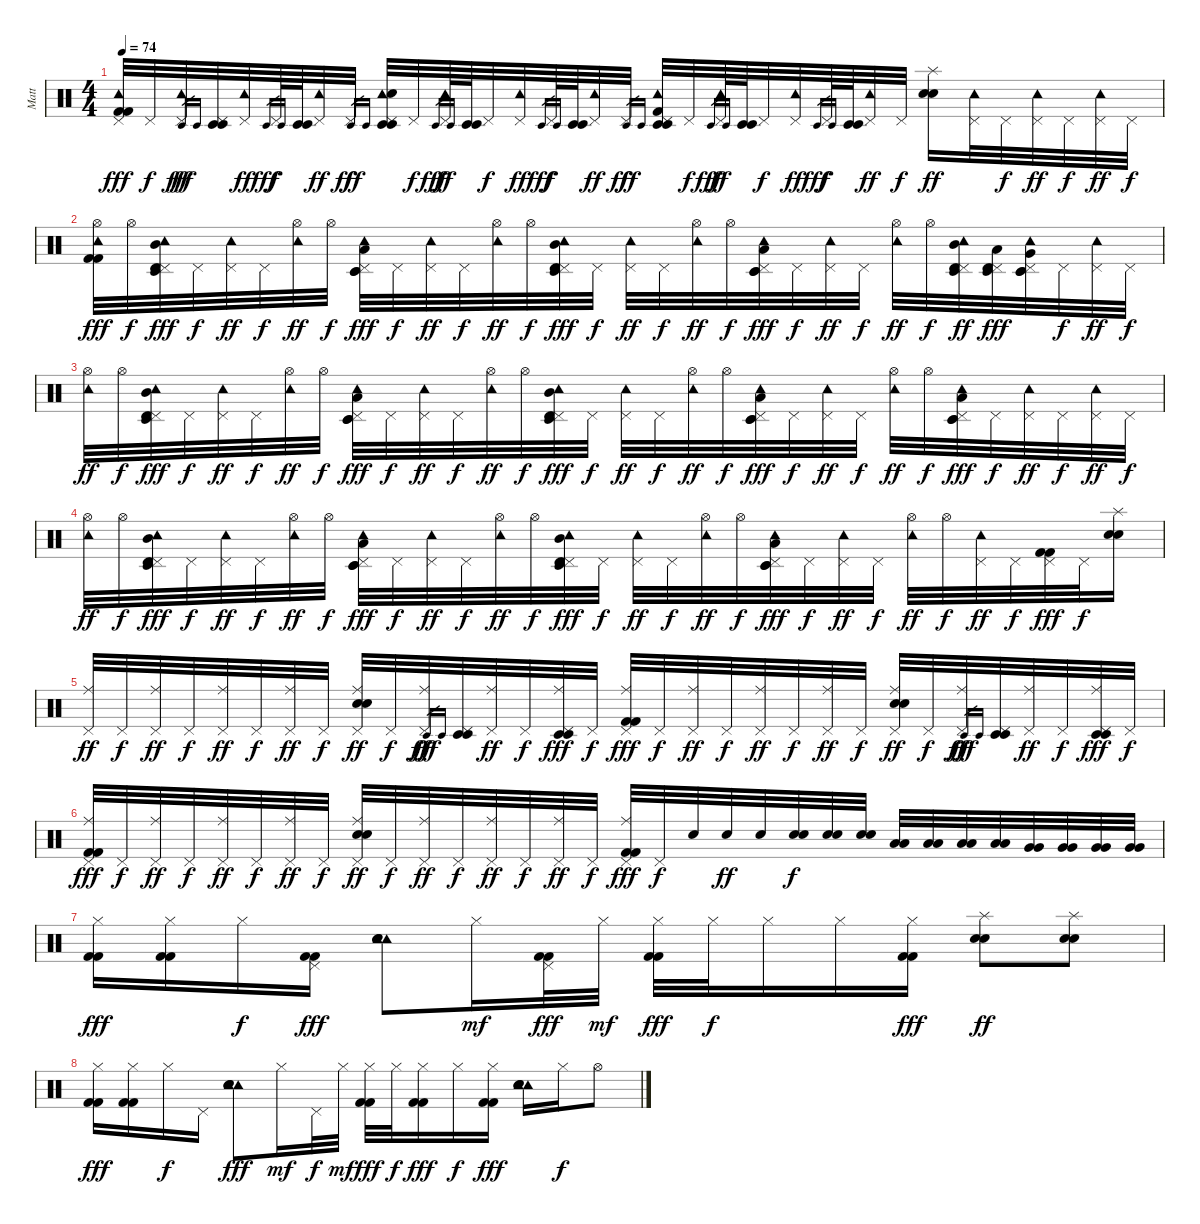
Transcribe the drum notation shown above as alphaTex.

\track ("Matt" "Matt") {instrument percussion}
\staff {score}
\articulation defaults
\ts (4 4)
\tempo 74
\clef neutral
\ks c
("Tambourine (hit)" "Pedal Hi-Hat (hit)" "Kick (hit) 2" "Kick (hit) 2").32{dy fff} "Pedal Hi-Hat (hit)".32{dy f} ("Tambourine (hit)" "Pedal Hi-Hat (hit)").32{dy ff} "Timbale low (hit)".16{gr dy fff} "Timbale low (hit)".16{gr} ("Pedal Hi-Hat (hit)" "Timbale low (hit)" "Timbale low (hit)").32 ("Tambourine (hit)" "Pedal Hi-Hat (hit)").32{dy ff} "Pedal Hi-Hat (hit)".64{dy f} "Timbale low (hit)".16{gr dy fff} "Timbale low (hit)".16{gr} ("Timbale low (hit)" "Timbale low (hit)").64 ("Tambourine (hit)" "Pedal Hi-Hat (hit)").32{dy ff} "Pedal Hi-Hat (hit)".32{dy f} "Timbale low (hit)".16{gr dy fff} "Timbale low (hit)".16{gr} ("Tambourine (hit)" "Pedal Hi-Hat (hit)" "Timbale low (hit)" "Timbale low (hit)" "Electric Snare (hit)").32 "Pedal Hi-Hat (hit)".32{dy f} ("Tambourine (hit)" "Pedal Hi-Hat (hit)").64{dy ff} "Timbale low (hit)".16{gr dy fff} "Timbale low (hit)".16{gr} ("Timbale low (hit)" "Timbale low (hit)").64 "Pedal Hi-Hat (hit)".32{dy f} ("Tambourine (hit)" "Pedal Hi-Hat (hit)").32{dy ff} "Pedal Hi-Hat (hit)".64{dy f} "Timbale low (hit)".16{gr dy fff} "Timbale low (hit)".16{gr} ("Timbale low (hit)" "Timbale low (hit)").64 ("Tambourine (hit)" "Pedal Hi-Hat (hit)").32{dy ff} "Pedal Hi-Hat (hit)".32{dy f} "Timbale low (hit)".16{gr dy fff} "Timbale low (hit)".16{gr} ("Tambourine (hit)" "Pedal Hi-Hat (hit)" "Timbale low (hit)" "Timbale low (hit)" "Kick (hit) 2").32 "Pedal Hi-Hat (hit)".32{dy f} ("Tambourine (hit)" "Pedal Hi-Hat (hit)").64{dy ff} "Timbale low (hit)".16{gr dy fff} "Timbale low (hit)".16{gr} ("Timbale low (hit)" "Timbale low (hit)").64 "Pedal Hi-Hat (hit)".32{dy f} ("Tambourine (hit)" "Pedal Hi-Hat (hit)").32{dy ff} "Pedal Hi-Hat (hit)".64{dy f} "Timbale low (hit)".16{gr dy fff} "Timbale low (hit)".16{gr} ("Timbale low (hit)" "Timbale low (hit)").64 ("Tambourine (hit)" "Pedal Hi-Hat (hit)").32{dy ff} "Pedal Hi-Hat (hit)".32{dy f} ("Splash (hit)" "Electric Snare (hit)" "Electric Snare (hit)").16{dy ff} ("Tambourine (hit)" "Pedal Hi-Hat (hit)").32 "Pedal Hi-Hat (hit)".32{dy f} ("Tambourine (hit)" "Pedal Hi-Hat (hit)").32{dy ff} "Pedal Hi-Hat (hit)".32{dy f} ("Tambourine (hit)" "Pedal Hi-Hat (hit)").32{dy ff} "Pedal Hi-Hat (hit)".32{dy f} |
("Tambourine (hit)" "Hi-Hat (open)" "Kick (hit) 2" "Kick (hit) 2").32{dy fff} "Hi-Hat (open)".32{dy f} ("Tambourine (hit)" "Pedal Hi-Hat (hit)" "Mid Tom (hit)" "Timbale high (hit)" "Timbale low (hit)").32{dy fff} "Pedal Hi-Hat (hit)".32{dy f} ("Tambourine (hit)" "Pedal Hi-Hat (hit)").32{dy ff} "Pedal Hi-Hat (hit)".32{dy f} ("Tambourine (hit)" "Hi-Hat (open)").32{dy ff} "Hi-Hat (open)".32{dy f} ("Tambourine (hit)" "Pedal Hi-Hat (hit)" "Low Tom (hit)" "Timbale low (hit)" "Timbale low (hit)").32{dy fff} "Pedal Hi-Hat (hit)".32{dy f} ("Tambourine (hit)" "Pedal Hi-Hat (hit)").32{dy ff} "Pedal Hi-Hat (hit)".32{dy f} ("Tambourine (hit)" "Hi-Hat (open)").32{dy ff} "Hi-Hat (open)".32{dy f} ("Tambourine (hit)" "Pedal Hi-Hat (hit)" "Mid Tom (hit)" "Timbale high (hit)" "Timbale low (hit)").32{dy fff} "Pedal Hi-Hat (hit)".32{dy f} ("Tambourine (hit)" "Pedal Hi-Hat (hit)").32{dy ff} "Pedal Hi-Hat (hit)".32{dy f} ("Tambourine (hit)" "Hi-Hat (open)").32{dy ff} "Hi-Hat (open)".32{dy f} ("Tambourine (hit)" "Pedal Hi-Hat (hit)" "Low Tom (hit)" "Timbale low (hit)" "Timbale low (hit)").32{dy fff} "Pedal Hi-Hat (hit)".32{dy f} ("Tambourine (hit)" "Pedal Hi-Hat (hit)").32{dy ff} "Pedal Hi-Hat (hit)".32{dy f} ("Tambourine (hit)" "Hi-Hat (open)").32{dy ff} "Hi-Hat (open)".32{dy f} ("Tambourine (hit)" "Pedal Hi-Hat (hit)" "Mid Tom (hit)" "Timbale high (hit)" "Timbale low (hit)").32{dy ff} ("Pedal Hi-Hat (hit)" "Low Tom (hit)" "Timbale high (hit)" "Timbale low (hit)").32{dy fff} ("Tambourine (hit)" "Pedal Hi-Hat (hit)" "Very Low Tom (hit)" "Timbale low (hit)" "Timbale low (hit)").32 "Pedal Hi-Hat (hit)".32{dy f} ("Tambourine (hit)" "Pedal Hi-Hat (hit)").32{dy ff} "Pedal Hi-Hat (hit)".32{dy f} |
("Tambourine (hit)" "Hi-Hat (open)").32{dy ff} "Hi-Hat (open)".32{dy f} ("Tambourine (hit)" "Pedal Hi-Hat (hit)" "Mid Tom (hit)" "Timbale high (hit)" "Timbale low (hit)").32{dy fff} "Pedal Hi-Hat (hit)".32{dy f} ("Tambourine (hit)" "Pedal Hi-Hat (hit)").32{dy ff} "Pedal Hi-Hat (hit)".32{dy f} ("Tambourine (hit)" "Hi-Hat (open)").32{dy ff} "Hi-Hat (open)".32{dy f} ("Tambourine (hit)" "Pedal Hi-Hat (hit)" "Low Tom (hit)" "Timbale low (hit)" "Timbale low (hit)").32{dy fff} "Pedal Hi-Hat (hit)".32{dy f} ("Tambourine (hit)" "Pedal Hi-Hat (hit)").32{dy ff} "Pedal Hi-Hat (hit)".32{dy f} ("Tambourine (hit)" "Hi-Hat (open)").32{dy ff} "Hi-Hat (open)".32{dy f} ("Tambourine (hit)" "Pedal Hi-Hat (hit)" "Mid Tom (hit)" "Timbale high (hit)" "Timbale low (hit)").32{dy fff} "Pedal Hi-Hat (hit)".32{dy f} ("Tambourine (hit)" "Pedal Hi-Hat (hit)").32{dy ff} "Pedal Hi-Hat (hit)".32{dy f} ("Tambourine (hit)" "Hi-Hat (open)").32{dy ff} "Hi-Hat (open)".32{dy f} ("Tambourine (hit)" "Pedal Hi-Hat (hit)" "Low Tom (hit)" "Timbale low (hit)" "Timbale low (hit)").32{dy fff} "Pedal Hi-Hat (hit)".32{dy f} ("Tambourine (hit)" "Pedal Hi-Hat (hit)").32{dy ff} "Pedal Hi-Hat (hit)".32{dy f} ("Tambourine (hit)" "Hi-Hat (open)").32{dy ff} "Hi-Hat (open)".32{dy f} ("Tambourine (hit)" "Pedal Hi-Hat (hit)" "Low Tom (hit)" "Timbale low (hit)" "Timbale low (hit)").32{dy fff} "Pedal Hi-Hat (hit)".32{dy f} ("Tambourine (hit)" "Pedal Hi-Hat (hit)").32{dy ff} "Pedal Hi-Hat (hit)".32{dy f} ("Tambourine (hit)" "Pedal Hi-Hat (hit)").32{dy ff} "Pedal Hi-Hat (hit)".32{dy f} |
("Tambourine (hit)" "Hi-Hat (open)").32{dy ff} "Hi-Hat (open)".32{dy f} ("Tambourine (hit)" "Pedal Hi-Hat (hit)" "Mid Tom (hit)" "Timbale high (hit)" "Timbale low (hit)").32{dy fff} "Pedal Hi-Hat (hit)".32{dy f} ("Tambourine (hit)" "Pedal Hi-Hat (hit)").32{dy ff} "Pedal Hi-Hat (hit)".32{dy f} ("Tambourine (hit)" "Hi-Hat (open)").32{dy ff} "Hi-Hat (open)".32{dy f} ("Tambourine (hit)" "Pedal Hi-Hat (hit)" "Low Tom (hit)" "Timbale low (hit)" "Timbale low (hit)").32{dy fff} "Pedal Hi-Hat (hit)".32{dy f} ("Tambourine (hit)" "Pedal Hi-Hat (hit)").32{dy ff} "Pedal Hi-Hat (hit)".32{dy f} ("Tambourine (hit)" "Hi-Hat (open)").32{dy ff} "Hi-Hat (open)".32{dy f} ("Tambourine (hit)" "Pedal Hi-Hat (hit)" "Mid Tom (hit)" "Timbale high (hit)" "Timbale low (hit)").32{dy fff} "Pedal Hi-Hat (hit)".32{dy f} ("Tambourine (hit)" "Pedal Hi-Hat (hit)").32{dy ff} "Pedal Hi-Hat (hit)".32{dy f} ("Tambourine (hit)" "Hi-Hat (open)").32{dy ff} "Hi-Hat (open)".32{dy f} ("Tambourine (hit)" "Pedal Hi-Hat (hit)" "Low Tom (hit)" "Timbale low (hit)" "Timbale low (hit)").32{dy fff} "Pedal Hi-Hat (hit)".32{dy f} ("Tambourine (hit)" "Pedal Hi-Hat (hit)").32{dy ff} "Pedal Hi-Hat (hit)".32{dy f} ("Tambourine (hit)" "Hi-Hat (open)").32{dy ff} "Hi-Hat (open)".32{dy f} ("Tambourine (hit)" "Pedal Hi-Hat (hit)").32{dy ff} "Pedal Hi-Hat (hit)".32{dy f} ("Pedal Hi-Hat (hit)" "Kick (hit) 2" "Kick (hit) 2").32{dy fff} "Pedal Hi-Hat (hit)".32{dy f} ("Splash (hit)" "Electric Snare (hit)" "Electric Snare (hit)").16 |
("Ride (middle)" "Pedal Hi-Hat (hit)").32{dy ff} "Pedal Hi-Hat (hit)".32{dy f} ("Ride (middle)" "Pedal Hi-Hat (hit)").32{dy ff} "Pedal Hi-Hat (hit)".32{dy f} ("Ride (middle)" "Pedal Hi-Hat (hit)").32{dy ff} "Pedal Hi-Hat (hit)".32{dy f} ("Ride (middle)" "Pedal Hi-Hat (hit)").32{dy ff} "Pedal Hi-Hat (hit)".32{dy f} ("Ride (middle)" "Pedal Hi-Hat (hit)" "Electric Snare (hit)" "Electric Snare (hit)").32{dy ff} "Pedal Hi-Hat (hit)".32{dy f} ("Ride (middle)" "Pedal Hi-Hat (hit)").32{dy ff} "Timbale low (hit)".16{gr dy fff} "Timbale low (hit)".16{gr} ("Pedal Hi-Hat (hit)" "Timbale low (hit)" "Timbale low (hit)").32 ("Ride (middle)" "Pedal Hi-Hat (hit)").32{dy ff} "Pedal Hi-Hat (hit)".32{dy f} ("Ride (middle)" "Pedal Hi-Hat (hit)" "Timbale low (hit)" "Timbale low (hit)").32{dy fff} "Pedal Hi-Hat (hit)".32{dy f} ("Ride (middle)" "Pedal Hi-Hat (hit)" "Kick (hit) 2" "Kick (hit) 2").32{dy fff} "Pedal Hi-Hat (hit)".32{dy f} ("Ride (middle)" "Pedal Hi-Hat (hit)").32{dy ff} "Pedal Hi-Hat (hit)".32{dy f} ("Ride (middle)" "Pedal Hi-Hat (hit)").32{dy ff} "Pedal Hi-Hat (hit)".32{dy f} ("Ride (middle)" "Pedal Hi-Hat (hit)").32{dy ff} "Pedal Hi-Hat (hit)".32{dy f} ("Ride (middle)" "Pedal Hi-Hat (hit)" "Electric Snare (hit)" "Electric Snare (hit)").32{dy ff} "Pedal Hi-Hat (hit)".32{dy f} ("Ride (middle)" "Pedal Hi-Hat (hit)").32{dy ff} "Timbale low (hit)".16{gr dy fff} "Timbale low (hit)".16{gr} ("Pedal Hi-Hat (hit)" "Timbale low (hit)" "Timbale low (hit)").32 ("Ride (middle)" "Pedal Hi-Hat (hit)").32{dy ff} "Pedal Hi-Hat (hit)".32{dy f} ("Ride (middle)" "Pedal Hi-Hat (hit)" "Timbale low (hit)" "Timbale low (hit)").32{dy fff} "Pedal Hi-Hat (hit)".32{dy f} |
("Ride (middle)" "Pedal Hi-Hat (hit)" "Kick (hit) 2" "Kick (hit) 2").32{dy fff} "Pedal Hi-Hat (hit)".32{dy f} ("Ride (middle)" "Pedal Hi-Hat (hit)").32{dy ff} "Pedal Hi-Hat (hit)".32{dy f} ("Ride (middle)" "Pedal Hi-Hat (hit)").32{dy ff} "Pedal Hi-Hat (hit)".32{dy f} ("Ride (middle)" "Pedal Hi-Hat (hit)").32{dy ff} "Pedal Hi-Hat (hit)".32{dy f} ("Ride (middle)" "Pedal Hi-Hat (hit)" "Electric Snare (hit)" "Electric Snare (hit)").32{dy ff} "Pedal Hi-Hat (hit)".32{dy f} ("Ride (middle)" "Pedal Hi-Hat (hit)").32{dy ff} "Pedal Hi-Hat (hit)".32{dy f} ("Ride (middle)" "Pedal Hi-Hat (hit)").32{dy ff} "Pedal Hi-Hat (hit)".32{dy f} ("Ride (middle)" "Pedal Hi-Hat (hit)").32{dy ff} "Pedal Hi-Hat (hit)".32{dy f} ("Ride (middle)" "Pedal Hi-Hat (hit)" "Kick (hit) 2" "Kick (hit) 2").32{dy fff} "Pedal Hi-Hat (hit)".32{dy f} "Electric Snare (hit)".32 "Electric Snare (hit)".32{dy ff} "Electric Snare (hit)".32 ("Electric Snare (hit)" "Electric Snare (hit)").32{dy f} ("Electric Snare (hit)" "Electric Snare (hit)").32 ("Electric Snare (hit)" "Electric Snare (hit)").32 ("Low Tom (hit)" "Low Tom (hit)").32 ("Low Tom (hit)" "Low Tom (hit)").32 ("Low Tom (hit)" "Low Tom (hit)").32 ("Low Tom (hit)" "Low Tom (hit)").32 ("Very Low Tom (hit)" "Very Low Tom (hit)").32 ("Very Low Tom (hit)" "Very Low Tom (hit)").32 ("Very Low Tom (hit)" "Very Low Tom (hit)").32 ("Very Low Tom (hit)" "Very Low Tom (hit)").32 |
("Hi-Hat (closed)" "Kick (hit) 2" "Kick (hit) 2").16{dy fff} ("Hi-Hat (closed)" "Kick (hit) 2" "Kick (hit) 2").16 "Hi-Hat (closed)".16{dy f} ("Pedal Hi-Hat (hit)" "Kick (hit) 2" "Kick (hit) 2").16{dy fff} ("Tambourine (hit)" "Tambourine (hit)" "Electric Snare (hit)" "Electric Snare (hit)").8 "Hi-Hat (closed)".16{dy mf} ("Pedal Hi-Hat (hit)" "Kick (hit) 2" "Kick (hit) 2").32{dy fff} "Hi-Hat (closed)".32{dy mf} ("Hi-Hat (closed)" "Kick (hit) 2" "Kick (hit) 2").32{dy fff} "Hi-Hat (closed)".32{dy f} "Hi-Hat (closed)".16 "Hi-Hat (closed)".16 ("Hi-Hat (closed)" "Kick (hit) 2" "Kick (hit) 2").16{dy fff} ("Splash (hit)" "Electric Snare (hit)" "Electric Snare (hit)").8{dy ff} ("Splash (hit)" "Electric Snare (hit)" "Electric Snare (hit)").8 |
("Hi-Hat (closed)" "Kick (hit) 2" "Kick (hit) 2").16{dy fff} ("Hi-Hat (closed)" "Kick (hit) 2" "Kick (hit) 2").16 "Hi-Hat (closed)".16{dy f} "Pedal Hi-Hat (hit)".16 ("Tambourine (hit)" "Tambourine (hit)" "Electric Snare (hit)" "Electric Snare (hit)").8{dy fff} "Hi-Hat (closed)".16{dy mf} "Pedal Hi-Hat (hit)".32{dy f} "Hi-Hat (closed)".32{dy mf} ("Hi-Hat (closed)" "Kick (hit) 2" "Kick (hit) 2").32{dy fff} "Hi-Hat (closed)".32{dy f} ("Hi-Hat (closed)" "Kick (hit) 2" "Kick (hit) 2").16{dy fff} "Hi-Hat (closed)".16{dy f} ("Hi-Hat (closed)" "Kick (hit) 2" "Kick (hit) 2").16{dy fff} ("Tambourine (hit)" "Tambourine (hit)" "Electric Snare (hit)" "Electric Snare (hit)").16 "Hi-Hat (closed)".16{dy f} "Hi-Hat (open)".8
